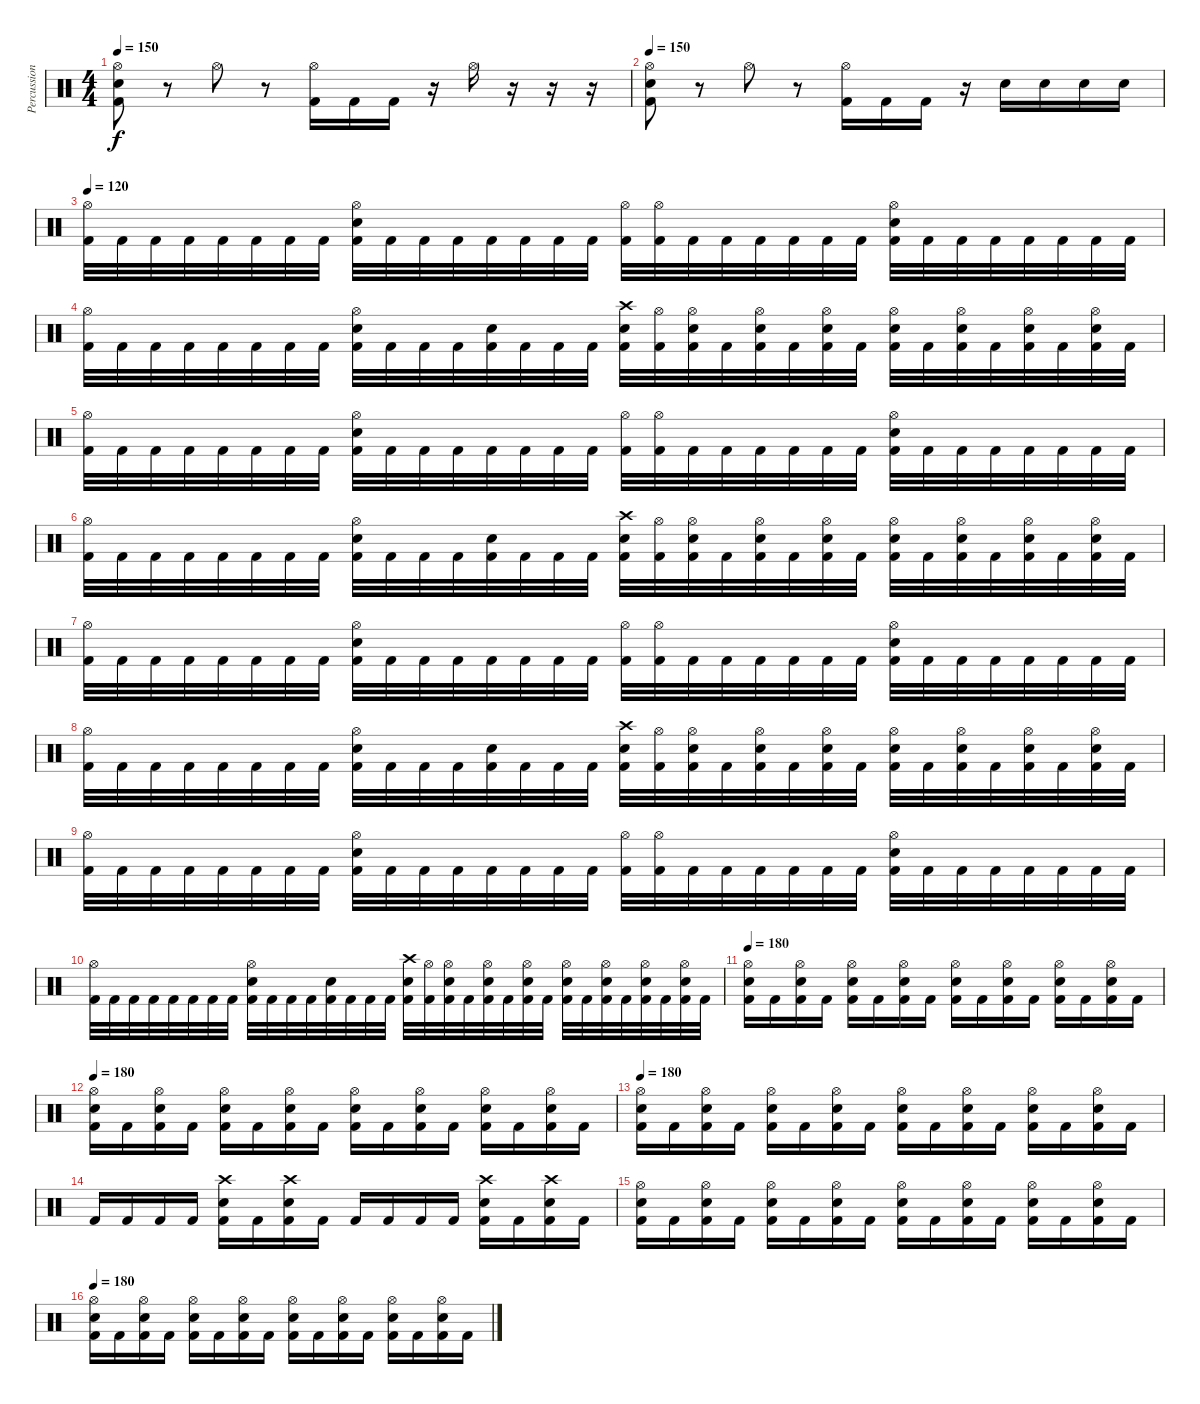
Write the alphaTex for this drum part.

\track ("Percussion" "Percussion") {instrument percussion}
\staff {score}
\articulation defaults
\ts (4 4)
\tempo 150
\clef neutral
\ks c
("Hi-Hat (open)" "Snare (hit) 2" "Kick (hit) 2").8{dy f} r.8 "Hi-Hat (open)".8 r.8 ("Hi-Hat (open)" "Kick (hit) 2").16 "Kick (hit) 2".16 "Kick (hit) 2".16 r.16 "Hi-Hat (open)".16 r.16 r.16 r.16 |
\tempo 150
("Hi-Hat (open)" "Snare (hit) 2" "Kick (hit) 2").8 r.8 "Hi-Hat (open)".8 r.8 ("Hi-Hat (open)" "Kick (hit) 2").16 "Kick (hit) 2".16 "Kick (hit) 2".16 r.16 "Snare (hit) 2".16 "Snare (hit) 2".16 "Snare (hit) 2".16 "Snare (hit) 2".16 |
\tempo 120
("Hi-Hat (open)" "Kick (hit) 2").32 "Kick (hit) 2".32 "Kick (hit) 2".32 "Kick (hit) 2".32 "Kick (hit) 2".32 "Kick (hit) 2".32 "Kick (hit) 2".32 "Kick (hit) 2".32 ("Hi-Hat (open)" "Snare (hit) 2" "Kick (hit) 2").32 "Kick (hit) 2".32 "Kick (hit) 2".32 "Kick (hit) 2".32 "Kick (hit) 2".32 "Kick (hit) 2".32 "Kick (hit) 2".32 "Kick (hit) 2".32 ("Hi-Hat (open)" "Kick (hit) 2").32 ("Hi-Hat (open)" "Kick (hit) 2").32 "Kick (hit) 2".32 "Kick (hit) 2".32 "Kick (hit) 2".32 "Kick (hit) 2".32 "Kick (hit) 2".32 "Kick (hit) 2".32 ("Hi-Hat (open)" "Snare (hit) 2" "Kick (hit) 2").32 "Kick (hit) 2".32 "Kick (hit) 2".32 "Kick (hit) 2".32 "Kick (hit) 2".32 "Kick (hit) 2".32 "Kick (hit) 2".32 "Kick (hit) 2".32 |
("Hi-Hat (open)" "Kick (hit) 2").32 "Kick (hit) 2".32 "Kick (hit) 2".32 "Kick (hit) 2".32 "Kick (hit) 2".32 "Kick (hit) 2".32 "Kick (hit) 2".32 "Kick (hit) 2".32 ("Hi-Hat (open)" "Snare (hit) 2" "Kick (hit) 2").32 "Kick (hit) 2".32 "Kick (hit) 2".32 "Kick (hit) 2".32 ("Snare (hit) 2" "Kick (hit) 2").32 "Kick (hit) 2".32 "Kick (hit) 2".32 "Kick (hit) 2".32 ("Crash high (hit)" "Snare (hit) 2" "Kick (hit) 2").32 ("Hi-Hat (open)" "Kick (hit) 2").32 ("Hi-Hat (open)" "Snare (hit) 2" "Kick (hit) 2").32 "Kick (hit) 2".32 ("Hi-Hat (open)" "Snare (hit) 2" "Kick (hit) 2").32 "Kick (hit) 2".32 ("Hi-Hat (open)" "Snare (hit) 2" "Kick (hit) 2").32 "Kick (hit) 2".32 ("Hi-Hat (open)" "Snare (hit) 2" "Kick (hit) 2").32 "Kick (hit) 2".32 ("Hi-Hat (open)" "Snare (hit) 2" "Kick (hit) 2").32 "Kick (hit) 2".32 ("Hi-Hat (open)" "Snare (hit) 2" "Kick (hit) 2").32 "Kick (hit) 2".32 ("Hi-Hat (open)" "Snare (hit) 2" "Kick (hit) 2").32 "Kick (hit) 2".32 |
("Hi-Hat (open)" "Kick (hit) 2").32 "Kick (hit) 2".32 "Kick (hit) 2".32 "Kick (hit) 2".32 "Kick (hit) 2".32 "Kick (hit) 2".32 "Kick (hit) 2".32 "Kick (hit) 2".32 ("Hi-Hat (open)" "Snare (hit) 2" "Kick (hit) 2").32 "Kick (hit) 2".32 "Kick (hit) 2".32 "Kick (hit) 2".32 "Kick (hit) 2".32 "Kick (hit) 2".32 "Kick (hit) 2".32 "Kick (hit) 2".32 ("Hi-Hat (open)" "Kick (hit) 2").32 ("Hi-Hat (open)" "Kick (hit) 2").32 "Kick (hit) 2".32 "Kick (hit) 2".32 "Kick (hit) 2".32 "Kick (hit) 2".32 "Kick (hit) 2".32 "Kick (hit) 2".32 ("Hi-Hat (open)" "Snare (hit) 2" "Kick (hit) 2").32 "Kick (hit) 2".32 "Kick (hit) 2".32 "Kick (hit) 2".32 "Kick (hit) 2".32 "Kick (hit) 2".32 "Kick (hit) 2".32 "Kick (hit) 2".32 |
("Hi-Hat (open)" "Kick (hit) 2").32 "Kick (hit) 2".32 "Kick (hit) 2".32 "Kick (hit) 2".32 "Kick (hit) 2".32 "Kick (hit) 2".32 "Kick (hit) 2".32 "Kick (hit) 2".32 ("Hi-Hat (open)" "Snare (hit) 2" "Kick (hit) 2").32 "Kick (hit) 2".32 "Kick (hit) 2".32 "Kick (hit) 2".32 ("Snare (hit) 2" "Kick (hit) 2").32 "Kick (hit) 2".32 "Kick (hit) 2".32 "Kick (hit) 2".32 ("Crash high (hit)" "Snare (hit) 2" "Kick (hit) 2").32 ("Hi-Hat (open)" "Kick (hit) 2").32 ("Hi-Hat (open)" "Snare (hit) 2" "Kick (hit) 2").32 "Kick (hit) 2".32 ("Hi-Hat (open)" "Snare (hit) 2" "Kick (hit) 2").32 "Kick (hit) 2".32 ("Hi-Hat (open)" "Snare (hit) 2" "Kick (hit) 2").32 "Kick (hit) 2".32 ("Hi-Hat (open)" "Snare (hit) 2" "Kick (hit) 2").32 "Kick (hit) 2".32 ("Hi-Hat (open)" "Snare (hit) 2" "Kick (hit) 2").32 "Kick (hit) 2".32 ("Hi-Hat (open)" "Snare (hit) 2" "Kick (hit) 2").32 "Kick (hit) 2".32 ("Hi-Hat (open)" "Snare (hit) 2" "Kick (hit) 2").32 "Kick (hit) 2".32 |
("Hi-Hat (open)" "Kick (hit) 2").32 "Kick (hit) 2".32 "Kick (hit) 2".32 "Kick (hit) 2".32 "Kick (hit) 2".32 "Kick (hit) 2".32 "Kick (hit) 2".32 "Kick (hit) 2".32 ("Hi-Hat (open)" "Snare (hit) 2" "Kick (hit) 2").32 "Kick (hit) 2".32 "Kick (hit) 2".32 "Kick (hit) 2".32 "Kick (hit) 2".32 "Kick (hit) 2".32 "Kick (hit) 2".32 "Kick (hit) 2".32 ("Hi-Hat (open)" "Kick (hit) 2").32 ("Hi-Hat (open)" "Kick (hit) 2").32 "Kick (hit) 2".32 "Kick (hit) 2".32 "Kick (hit) 2".32 "Kick (hit) 2".32 "Kick (hit) 2".32 "Kick (hit) 2".32 ("Hi-Hat (open)" "Snare (hit) 2" "Kick (hit) 2").32 "Kick (hit) 2".32 "Kick (hit) 2".32 "Kick (hit) 2".32 "Kick (hit) 2".32 "Kick (hit) 2".32 "Kick (hit) 2".32 "Kick (hit) 2".32 |
("Hi-Hat (open)" "Kick (hit) 2").32 "Kick (hit) 2".32 "Kick (hit) 2".32 "Kick (hit) 2".32 "Kick (hit) 2".32 "Kick (hit) 2".32 "Kick (hit) 2".32 "Kick (hit) 2".32 ("Hi-Hat (open)" "Snare (hit) 2" "Kick (hit) 2").32 "Kick (hit) 2".32 "Kick (hit) 2".32 "Kick (hit) 2".32 ("Snare (hit) 2" "Kick (hit) 2").32 "Kick (hit) 2".32 "Kick (hit) 2".32 "Kick (hit) 2".32 ("Crash high (hit)" "Snare (hit) 2" "Kick (hit) 2").32 ("Hi-Hat (open)" "Kick (hit) 2").32 ("Hi-Hat (open)" "Snare (hit) 2" "Kick (hit) 2").32 "Kick (hit) 2".32 ("Hi-Hat (open)" "Snare (hit) 2" "Kick (hit) 2").32 "Kick (hit) 2".32 ("Hi-Hat (open)" "Snare (hit) 2" "Kick (hit) 2").32 "Kick (hit) 2".32 ("Hi-Hat (open)" "Snare (hit) 2" "Kick (hit) 2").32 "Kick (hit) 2".32 ("Hi-Hat (open)" "Snare (hit) 2" "Kick (hit) 2").32 "Kick (hit) 2".32 ("Hi-Hat (open)" "Snare (hit) 2" "Kick (hit) 2").32 "Kick (hit) 2".32 ("Hi-Hat (open)" "Snare (hit) 2" "Kick (hit) 2").32 "Kick (hit) 2".32 |
("Hi-Hat (open)" "Kick (hit) 2").32 "Kick (hit) 2".32 "Kick (hit) 2".32 "Kick (hit) 2".32 "Kick (hit) 2".32 "Kick (hit) 2".32 "Kick (hit) 2".32 "Kick (hit) 2".32 ("Hi-Hat (open)" "Snare (hit) 2" "Kick (hit) 2").32 "Kick (hit) 2".32 "Kick (hit) 2".32 "Kick (hit) 2".32 "Kick (hit) 2".32 "Kick (hit) 2".32 "Kick (hit) 2".32 "Kick (hit) 2".32 ("Hi-Hat (open)" "Kick (hit) 2").32 ("Hi-Hat (open)" "Kick (hit) 2").32 "Kick (hit) 2".32 "Kick (hit) 2".32 "Kick (hit) 2".32 "Kick (hit) 2".32 "Kick (hit) 2".32 "Kick (hit) 2".32 ("Hi-Hat (open)" "Snare (hit) 2" "Kick (hit) 2").32 "Kick (hit) 2".32 "Kick (hit) 2".32 "Kick (hit) 2".32 "Kick (hit) 2".32 "Kick (hit) 2".32 "Kick (hit) 2".32 "Kick (hit) 2".32 |
("Hi-Hat (open)" "Kick (hit) 2").32 "Kick (hit) 2".32 "Kick (hit) 2".32 "Kick (hit) 2".32 "Kick (hit) 2".32 "Kick (hit) 2".32 "Kick (hit) 2".32 "Kick (hit) 2".32 ("Hi-Hat (open)" "Snare (hit) 2" "Kick (hit) 2").32 "Kick (hit) 2".32 "Kick (hit) 2".32 "Kick (hit) 2".32 ("Snare (hit) 2" "Kick (hit) 2").32 "Kick (hit) 2".32 "Kick (hit) 2".32 "Kick (hit) 2".32 ("Crash high (hit)" "Snare (hit) 2" "Kick (hit) 2").32 ("Hi-Hat (open)" "Kick (hit) 2").32 ("Hi-Hat (open)" "Snare (hit) 2" "Kick (hit) 2").32 "Kick (hit) 2".32 ("Hi-Hat (open)" "Snare (hit) 2" "Kick (hit) 2").32 "Kick (hit) 2".32 ("Hi-Hat (open)" "Snare (hit) 2" "Kick (hit) 2").32 "Kick (hit) 2".32 ("Hi-Hat (open)" "Snare (hit) 2" "Kick (hit) 2").32 "Kick (hit) 2".32 ("Hi-Hat (open)" "Snare (hit) 2" "Kick (hit) 2").32 "Kick (hit) 2".32 ("Hi-Hat (open)" "Snare (hit) 2" "Kick (hit) 2").32 "Kick (hit) 2".32 ("Hi-Hat (open)" "Snare (hit) 2" "Kick (hit) 2").32 "Kick (hit) 2".32 |
\tempo 180
("Hi-Hat (open)" "Snare (hit) 2" "Kick (hit) 2").16 "Kick (hit) 2".16 ("Hi-Hat (open)" "Snare (hit) 2" "Kick (hit) 2").16 "Kick (hit) 2".16 ("Hi-Hat (open)" "Snare (hit) 2" "Kick (hit) 2").16 "Kick (hit) 2".16 ("Hi-Hat (open)" "Snare (hit) 2" "Kick (hit) 2").16 "Kick (hit) 2".16 ("Hi-Hat (open)" "Snare (hit) 2" "Kick (hit) 2").16 "Kick (hit) 2".16 ("Hi-Hat (open)" "Snare (hit) 2" "Kick (hit) 2").16 "Kick (hit) 2".16 ("Hi-Hat (open)" "Snare (hit) 2" "Kick (hit) 2").16 "Kick (hit) 2".16 ("Hi-Hat (open)" "Snare (hit) 2" "Kick (hit) 2").16 "Kick (hit) 2".16 |
\tempo 180
("Hi-Hat (open)" "Snare (hit) 2" "Kick (hit) 2").16 "Kick (hit) 2".16 ("Hi-Hat (open)" "Snare (hit) 2" "Kick (hit) 2").16 "Kick (hit) 2".16 ("Hi-Hat (open)" "Snare (hit) 2" "Kick (hit) 2").16 "Kick (hit) 2".16 ("Hi-Hat (open)" "Snare (hit) 2" "Kick (hit) 2").16 "Kick (hit) 2".16 ("Hi-Hat (open)" "Snare (hit) 2" "Kick (hit) 2").16 "Kick (hit) 2".16 ("Hi-Hat (open)" "Snare (hit) 2" "Kick (hit) 2").16 "Kick (hit) 2".16 ("Hi-Hat (open)" "Snare (hit) 2" "Kick (hit) 2").16 "Kick (hit) 2".16 ("Hi-Hat (open)" "Snare (hit) 2" "Kick (hit) 2").16 "Kick (hit) 2".16 |
\tempo 180
("Hi-Hat (open)" "Snare (hit) 2" "Kick (hit) 2").16 "Kick (hit) 2".16 ("Hi-Hat (open)" "Snare (hit) 2" "Kick (hit) 2").16 "Kick (hit) 2".16 ("Hi-Hat (open)" "Snare (hit) 2" "Kick (hit) 2").16 "Kick (hit) 2".16 ("Hi-Hat (open)" "Snare (hit) 2" "Kick (hit) 2").16 "Kick (hit) 2".16 ("Hi-Hat (open)" "Snare (hit) 2" "Kick (hit) 2").16 "Kick (hit) 2".16 ("Hi-Hat (open)" "Snare (hit) 2" "Kick (hit) 2").16 "Kick (hit) 2".16 ("Hi-Hat (open)" "Snare (hit) 2" "Kick (hit) 2").16 "Kick (hit) 2".16 ("Hi-Hat (open)" "Snare (hit) 2" "Kick (hit) 2").16 "Kick (hit) 2".16 |
"Kick (hit) 2".16 "Kick (hit) 2".16 "Kick (hit) 2".16 "Kick (hit) 2".16 ("Crash high (hit)" "Snare (hit) 2" "Kick (hit) 2").16 "Kick (hit) 2".16 ("Crash high (hit)" "Snare (hit) 2" "Kick (hit) 2").16 "Kick (hit) 2".16 "Kick (hit) 2".16 "Kick (hit) 2".16 "Kick (hit) 2".16 "Kick (hit) 2".16 ("Crash high (hit)" "Snare (hit) 2" "Kick (hit) 2").16 "Kick (hit) 2".16 ("Crash high (hit)" "Snare (hit) 2" "Kick (hit) 2").16 "Kick (hit) 2".16 |
("Hi-Hat (open)" "Snare (hit) 2" "Kick (hit) 2").16 "Kick (hit) 2".16 ("Hi-Hat (open)" "Snare (hit) 2" "Kick (hit) 2").16 "Kick (hit) 2".16 ("Hi-Hat (open)" "Snare (hit) 2" "Kick (hit) 2").16 "Kick (hit) 2".16 ("Hi-Hat (open)" "Snare (hit) 2" "Kick (hit) 2").16 "Kick (hit) 2".16 ("Hi-Hat (open)" "Snare (hit) 2" "Kick (hit) 2").16 "Kick (hit) 2".16 ("Hi-Hat (open)" "Snare (hit) 2" "Kick (hit) 2").16 "Kick (hit) 2".16 ("Hi-Hat (open)" "Snare (hit) 2" "Kick (hit) 2").16 "Kick (hit) 2".16 ("Hi-Hat (open)" "Snare (hit) 2" "Kick (hit) 2").16 "Kick (hit) 2".16 |
\tempo 180
("Hi-Hat (open)" "Snare (hit) 2" "Kick (hit) 2").16 "Kick (hit) 2".16 ("Hi-Hat (open)" "Snare (hit) 2" "Kick (hit) 2").16 "Kick (hit) 2".16 ("Hi-Hat (open)" "Snare (hit) 2" "Kick (hit) 2").16 "Kick (hit) 2".16 ("Hi-Hat (open)" "Snare (hit) 2" "Kick (hit) 2").16 "Kick (hit) 2".16 ("Hi-Hat (open)" "Snare (hit) 2" "Kick (hit) 2").16 "Kick (hit) 2".16 ("Hi-Hat (open)" "Snare (hit) 2" "Kick (hit) 2").16 "Kick (hit) 2".16 ("Hi-Hat (open)" "Snare (hit) 2" "Kick (hit) 2").16 "Kick (hit) 2".16 ("Hi-Hat (open)" "Snare (hit) 2" "Kick (hit) 2").16 "Kick (hit) 2".16
